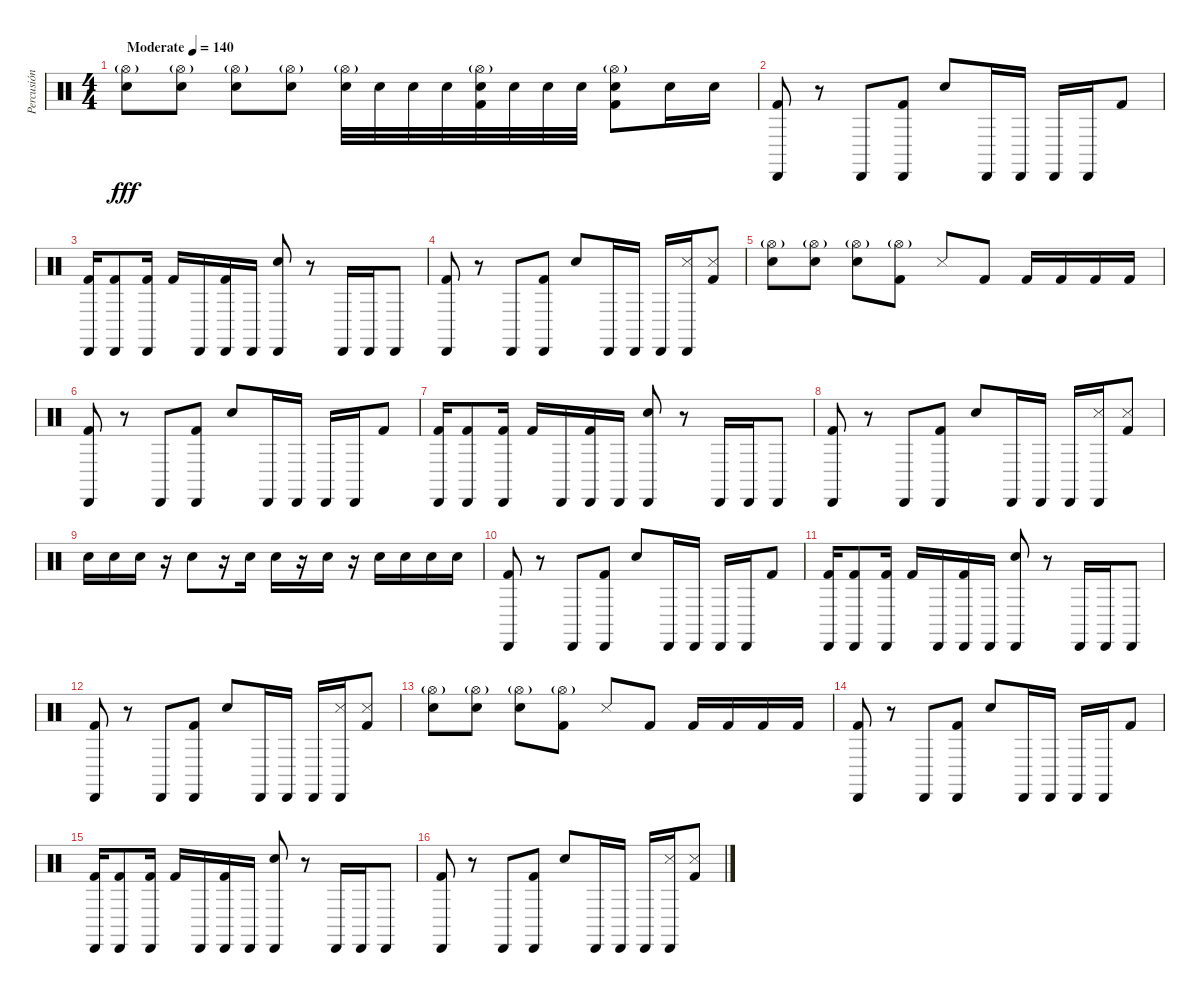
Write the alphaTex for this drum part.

\track ("Percusión" "Percusión") {instrument percussion}
\staff {score}
\articulation defaults
\ts (4 4)
\tempo (140 "Moderate")
\clef neutral
\ks c
("Hi-Hat (open)"{g} "Snare (hit) 2").8{dy fff} ("Hi-Hat (open)"{g} "Snare (hit) 2").8 ("Hi-Hat (open)"{g} "Snare (hit) 2").8 ("Hi-Hat (open)"{g} "Snare (hit) 2").8 ("Hi-Hat (open)"{g} "Snare (hit) 2").32 "Snare (hit) 2".32 "Snare (hit) 2".32 "Snare (hit) 2".32 ("Hi-Hat (open)"{g} "Snare (hit) 2" "Kick (hit) 2").32 "Snare (hit) 2".32 "Snare (hit) 2".32 "Snare (hit) 2".32 ("Hi-Hat (open)"{g} "Snare (hit) 2" "Kick (hit) 2").8 "Snare (hit) 2".16 "Snare (hit) 2".16 |
("Cabasa (hit)" "Kick (hit) 2").8 r.8 "Cabasa (hit)".8 ("Cabasa (hit)" "Kick (hit) 2").8 "Snare (hit) 2".8 "Cabasa (hit)".16 "Cabasa (hit)".16 "Cabasa (hit)".16 "Cabasa (hit)".16 "Kick (hit) 2".8 |
("Cabasa (hit)" "Kick (hit) 2").16 ("Cabasa (hit)" "Kick (hit) 2").8 ("Cabasa (hit)" "Kick (hit) 2").16 "Kick (hit) 2".16 "Cabasa (hit)".16 ("Cabasa (hit)" "Kick (hit) 2").16 "Cabasa (hit)".16 ("Cabasa (hit)" "Snare (hit) 2").8 r.8 "Cabasa (hit)".16 "Cabasa (hit)".16 "Cabasa (hit)".8 |
("Cabasa (hit)" "Kick (hit) 2").8 r.8 "Cabasa (hit)".8 ("Cabasa (hit)" "Kick (hit) 2").8 "Snare (hit) 2".8 "Cabasa (hit)".16 "Cabasa (hit)".16 "Cabasa (hit)".16 ("Metronome (hit)" "Cabasa (hit)").16 ("Metronome (hit)" "Kick (hit) 2").8 |
("Hi-Hat (open)"{g} "Snare (hit) 2").8 ("Hi-Hat (open)"{g} "Snare (hit) 2").8 ("Hi-Hat (open)"{g} "Snare (hit) 2").8 ("Hi-Hat (open)"{g} "Kick (hit) 2").8 "Metronome (hit)".8 "Kick (hit) 2".8 "Kick (hit) 2".16 "Kick (hit) 2".16 "Kick (hit) 2".16 "Kick (hit) 2".16 |
("Cabasa (hit)" "Kick (hit) 2").8 r.8 "Cabasa (hit)".8 ("Cabasa (hit)" "Kick (hit) 2").8 "Snare (hit) 2".8 "Cabasa (hit)".16 "Cabasa (hit)".16 "Cabasa (hit)".16 "Cabasa (hit)".16 "Kick (hit) 2".8 |
("Cabasa (hit)" "Kick (hit) 2").16 ("Cabasa (hit)" "Kick (hit) 2").8 ("Cabasa (hit)" "Kick (hit) 2").16 "Kick (hit) 2".16 "Cabasa (hit)".16 ("Cabasa (hit)" "Kick (hit) 2").16 "Cabasa (hit)".16 ("Cabasa (hit)" "Snare (hit) 2").8 r.8 "Cabasa (hit)".16 "Cabasa (hit)".16 "Cabasa (hit)".8 |
("Cabasa (hit)" "Kick (hit) 2").8 r.8 "Cabasa (hit)".8 ("Cabasa (hit)" "Kick (hit) 2").8 "Snare (hit) 2".8 "Cabasa (hit)".16 "Cabasa (hit)".16 "Cabasa (hit)".16 ("Metronome (hit)" "Cabasa (hit)").16 ("Metronome (hit)" "Kick (hit) 2").8 |
"Snare (hit) 2".16 "Snare (hit) 2".16 "Snare (hit) 2".16 r.16 "Snare (hit) 2".8 r.16 "Snare (hit) 2".16 "Snare (hit) 2".16 r.16 "Snare (hit) 2".16 r.16 "Snare (hit) 2".16 "Snare (hit) 2".16 "Snare (hit) 2".16 "Snare (hit) 2".16 |
("Cabasa (hit)" "Kick (hit) 2").8 r.8 "Cabasa (hit)".8 ("Cabasa (hit)" "Kick (hit) 2").8 "Snare (hit) 2".8 "Cabasa (hit)".16 "Cabasa (hit)".16 "Cabasa (hit)".16 "Cabasa (hit)".16 "Kick (hit) 2".8 |
("Cabasa (hit)" "Kick (hit) 2").16 ("Cabasa (hit)" "Kick (hit) 2").8 ("Cabasa (hit)" "Kick (hit) 2").16 "Kick (hit) 2".16 "Cabasa (hit)".16 ("Cabasa (hit)" "Kick (hit) 2").16 "Cabasa (hit)".16 ("Cabasa (hit)" "Snare (hit) 2").8 r.8 "Cabasa (hit)".16 "Cabasa (hit)".16 "Cabasa (hit)".8 |
("Cabasa (hit)" "Kick (hit) 2").8 r.8 "Cabasa (hit)".8 ("Cabasa (hit)" "Kick (hit) 2").8 "Snare (hit) 2".8 "Cabasa (hit)".16 "Cabasa (hit)".16 "Cabasa (hit)".16 ("Metronome (hit)" "Cabasa (hit)").16 ("Metronome (hit)" "Kick (hit) 2").8 |
("Hi-Hat (open)"{g} "Snare (hit) 2").8 ("Hi-Hat (open)"{g} "Snare (hit) 2").8 ("Hi-Hat (open)"{g} "Snare (hit) 2").8 ("Hi-Hat (open)"{g} "Kick (hit) 2").8 "Metronome (hit)".8 "Kick (hit) 2".8 "Kick (hit) 2".16 "Kick (hit) 2".16 "Kick (hit) 2".16 "Kick (hit) 2".16 |
("Cabasa (hit)" "Kick (hit) 2").8 r.8 "Cabasa (hit)".8 ("Cabasa (hit)" "Kick (hit) 2").8 "Snare (hit) 2".8 "Cabasa (hit)".16 "Cabasa (hit)".16 "Cabasa (hit)".16 "Cabasa (hit)".16 "Kick (hit) 2".8 |
("Cabasa (hit)" "Kick (hit) 2").16 ("Cabasa (hit)" "Kick (hit) 2").8 ("Cabasa (hit)" "Kick (hit) 2").16 "Kick (hit) 2".16 "Cabasa (hit)".16 ("Cabasa (hit)" "Kick (hit) 2").16 "Cabasa (hit)".16 ("Cabasa (hit)" "Snare (hit) 2").8 r.8 "Cabasa (hit)".16 "Cabasa (hit)".16 "Cabasa (hit)".8 |
("Cabasa (hit)" "Kick (hit) 2").8 r.8 "Cabasa (hit)".8 ("Cabasa (hit)" "Kick (hit) 2").8 "Snare (hit) 2".8 "Cabasa (hit)".16 "Cabasa (hit)".16 "Cabasa (hit)".16 ("Metronome (hit)" "Cabasa (hit)").16 ("Metronome (hit)" "Kick (hit) 2").8
